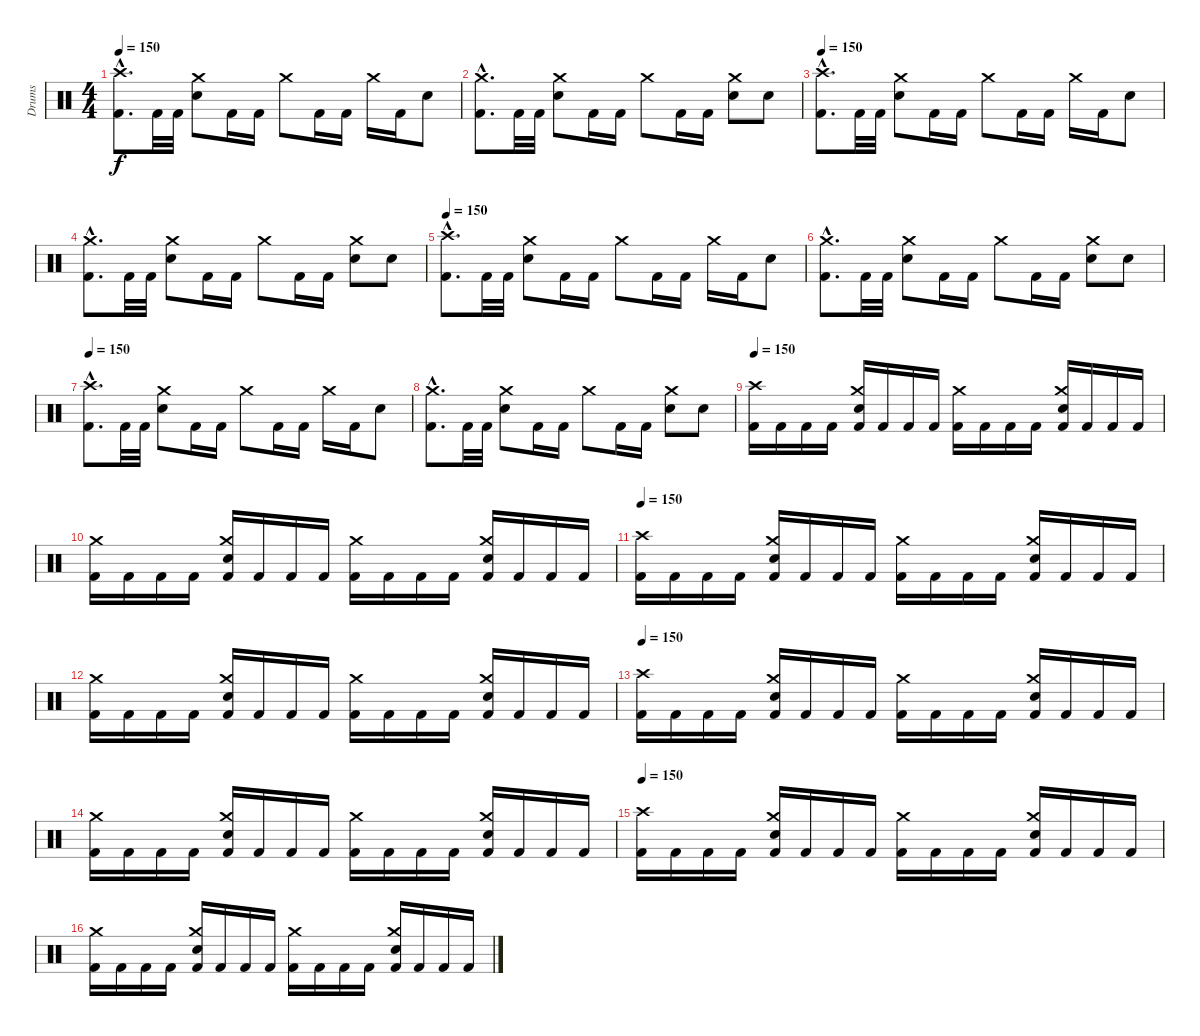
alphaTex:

\track ("Drums" "Drums") {instrument percussion}
\staff {score}
\articulation defaults
\ts (4 4)
\tempo 150
\clef neutral
\ks c
("Crash high (hit)"{hac} "Kick (hit) 2"{hac}).8{d dy f} "Kick (hit) 2".32 "Kick (hit) 2".32 ("Crash medium (hit)" "Electric Snare (hit)").8 "Kick (hit) 2".16 "Kick (hit) 2".16 "Crash medium (hit)".8 "Kick (hit) 2".16 "Kick (hit) 2".16 "Crash medium (hit)".16 "Kick (hit) 2".16 "Electric Snare (hit)".8 |
("Crash medium (hit)"{hac} "Kick (hit) 2"{hac}).8{d} "Kick (hit) 2".32 "Kick (hit) 2".32 ("Crash medium (hit)" "Electric Snare (hit)").8 "Kick (hit) 2".16 "Kick (hit) 2".16 "Crash medium (hit)".8 "Kick (hit) 2".16 "Kick (hit) 2".16 ("Crash medium (hit)" "Electric Snare (hit)").8 "Electric Snare (hit)".8 |
\tempo 150
("Crash high (hit)"{hac} "Kick (hit) 2"{hac}).8{d} "Kick (hit) 2".32 "Kick (hit) 2".32 ("Crash medium (hit)" "Electric Snare (hit)").8 "Kick (hit) 2".16 "Kick (hit) 2".16 "Crash medium (hit)".8 "Kick (hit) 2".16 "Kick (hit) 2".16 "Crash medium (hit)".16 "Kick (hit) 2".16 "Electric Snare (hit)".8 |
("Crash medium (hit)"{hac} "Kick (hit) 2"{hac}).8{d} "Kick (hit) 2".32 "Kick (hit) 2".32 ("Crash medium (hit)" "Electric Snare (hit)").8 "Kick (hit) 2".16 "Kick (hit) 2".16 "Crash medium (hit)".8 "Kick (hit) 2".16 "Kick (hit) 2".16 ("Crash medium (hit)" "Electric Snare (hit)").8 "Electric Snare (hit)".8 |
\tempo 150
("Crash high (hit)"{hac} "Kick (hit) 2"{hac}).8{d} "Kick (hit) 2".32 "Kick (hit) 2".32 ("Crash medium (hit)" "Electric Snare (hit)").8 "Kick (hit) 2".16 "Kick (hit) 2".16 "Crash medium (hit)".8 "Kick (hit) 2".16 "Kick (hit) 2".16 "Crash medium (hit)".16 "Kick (hit) 2".16 "Electric Snare (hit)".8 |
("Crash medium (hit)"{hac} "Kick (hit) 2"{hac}).8{d} "Kick (hit) 2".32 "Kick (hit) 2".32 ("Crash medium (hit)" "Electric Snare (hit)").8 "Kick (hit) 2".16 "Kick (hit) 2".16 "Crash medium (hit)".8 "Kick (hit) 2".16 "Kick (hit) 2".16 ("Crash medium (hit)" "Electric Snare (hit)").8 "Electric Snare (hit)".8 |
\tempo 150
("Crash high (hit)"{hac} "Kick (hit) 2"{hac}).8{d} "Kick (hit) 2".32 "Kick (hit) 2".32 ("Crash medium (hit)" "Electric Snare (hit)").8 "Kick (hit) 2".16 "Kick (hit) 2".16 "Crash medium (hit)".8 "Kick (hit) 2".16 "Kick (hit) 2".16 "Crash medium (hit)".16 "Kick (hit) 2".16 "Electric Snare (hit)".8 |
("Crash medium (hit)"{hac} "Kick (hit) 2"{hac}).8{d} "Kick (hit) 2".32 "Kick (hit) 2".32 ("Crash medium (hit)" "Electric Snare (hit)").8 "Kick (hit) 2".16 "Kick (hit) 2".16 "Crash medium (hit)".8 "Kick (hit) 2".16 "Kick (hit) 2".16 ("Crash medium (hit)" "Electric Snare (hit)").8 "Electric Snare (hit)".8 |
\tempo 150
("Crash high (hit)" "Kick (hit) 2").16 "Kick (hit) 2".16 "Kick (hit) 2".16 "Kick (hit) 2".16 ("Crash medium (hit)" "Electric Snare (hit)" "Kick (hit) 2").16 "Kick (hit) 2".16 "Kick (hit) 2".16 "Kick (hit) 2".16 ("Crash medium (hit)" "Kick (hit) 2").16 "Kick (hit) 2".16 "Kick (hit) 2".16 "Kick (hit) 2".16 ("Crash medium (hit)" "Electric Snare (hit)" "Kick (hit) 2").16 "Kick (hit) 2".16 "Kick (hit) 2".16 "Kick (hit) 2".16 |
("Crash medium (hit)" "Kick (hit) 2").16 "Kick (hit) 2".16 "Kick (hit) 2".16 "Kick (hit) 2".16 ("Crash medium (hit)" "Electric Snare (hit)" "Kick (hit) 2").16 "Kick (hit) 2".16 "Kick (hit) 2".16 "Kick (hit) 2".16 ("Crash medium (hit)" "Kick (hit) 2").16 "Kick (hit) 2".16 "Kick (hit) 2".16 "Kick (hit) 2".16 ("Crash medium (hit)" "Electric Snare (hit)" "Kick (hit) 2").16 "Kick (hit) 2".16 "Kick (hit) 2".16 "Kick (hit) 2".16 |
\tempo 150
("Crash high (hit)" "Kick (hit) 2").16 "Kick (hit) 2".16 "Kick (hit) 2".16 "Kick (hit) 2".16 ("Crash medium (hit)" "Electric Snare (hit)" "Kick (hit) 2").16 "Kick (hit) 2".16 "Kick (hit) 2".16 "Kick (hit) 2".16 ("Crash medium (hit)" "Kick (hit) 2").16 "Kick (hit) 2".16 "Kick (hit) 2".16 "Kick (hit) 2".16 ("Crash medium (hit)" "Electric Snare (hit)" "Kick (hit) 2").16 "Kick (hit) 2".16 "Kick (hit) 2".16 "Kick (hit) 2".16 |
("Crash medium (hit)" "Kick (hit) 2").16 "Kick (hit) 2".16 "Kick (hit) 2".16 "Kick (hit) 2".16 ("Crash medium (hit)" "Electric Snare (hit)" "Kick (hit) 2").16 "Kick (hit) 2".16 "Kick (hit) 2".16 "Kick (hit) 2".16 ("Crash medium (hit)" "Kick (hit) 2").16 "Kick (hit) 2".16 "Kick (hit) 2".16 "Kick (hit) 2".16 ("Crash medium (hit)" "Electric Snare (hit)" "Kick (hit) 2").16 "Kick (hit) 2".16 "Kick (hit) 2".16 "Kick (hit) 2".16 |
\tempo 150
("Crash high (hit)" "Kick (hit) 2").16 "Kick (hit) 2".16 "Kick (hit) 2".16 "Kick (hit) 2".16 ("Crash medium (hit)" "Electric Snare (hit)" "Kick (hit) 2").16 "Kick (hit) 2".16 "Kick (hit) 2".16 "Kick (hit) 2".16 ("Crash medium (hit)" "Kick (hit) 2").16 "Kick (hit) 2".16 "Kick (hit) 2".16 "Kick (hit) 2".16 ("Crash medium (hit)" "Electric Snare (hit)" "Kick (hit) 2").16 "Kick (hit) 2".16 "Kick (hit) 2".16 "Kick (hit) 2".16 |
("Crash medium (hit)" "Kick (hit) 2").16 "Kick (hit) 2".16 "Kick (hit) 2".16 "Kick (hit) 2".16 ("Crash medium (hit)" "Electric Snare (hit)" "Kick (hit) 2").16 "Kick (hit) 2".16 "Kick (hit) 2".16 "Kick (hit) 2".16 ("Crash medium (hit)" "Kick (hit) 2").16 "Kick (hit) 2".16 "Kick (hit) 2".16 "Kick (hit) 2".16 ("Crash medium (hit)" "Electric Snare (hit)" "Kick (hit) 2").16 "Kick (hit) 2".16 "Kick (hit) 2".16 "Kick (hit) 2".16 |
\tempo 150
("Crash high (hit)" "Kick (hit) 2").16 "Kick (hit) 2".16 "Kick (hit) 2".16 "Kick (hit) 2".16 ("Crash medium (hit)" "Electric Snare (hit)" "Kick (hit) 2").16 "Kick (hit) 2".16 "Kick (hit) 2".16 "Kick (hit) 2".16 ("Crash medium (hit)" "Kick (hit) 2").16 "Kick (hit) 2".16 "Kick (hit) 2".16 "Kick (hit) 2".16 ("Crash medium (hit)" "Electric Snare (hit)" "Kick (hit) 2").16 "Kick (hit) 2".16 "Kick (hit) 2".16 "Kick (hit) 2".16 |
("Crash medium (hit)" "Kick (hit) 2").16 "Kick (hit) 2".16 "Kick (hit) 2".16 "Kick (hit) 2".16 ("Crash medium (hit)" "Electric Snare (hit)" "Kick (hit) 2").16 "Kick (hit) 2".16 "Kick (hit) 2".16 "Kick (hit) 2".16 ("Crash medium (hit)" "Kick (hit) 2").16 "Kick (hit) 2".16 "Kick (hit) 2".16 "Kick (hit) 2".16 ("Crash medium (hit)" "Electric Snare (hit)" "Kick (hit) 2").16 "Kick (hit) 2".16 "Kick (hit) 2".16 "Kick (hit) 2".16
